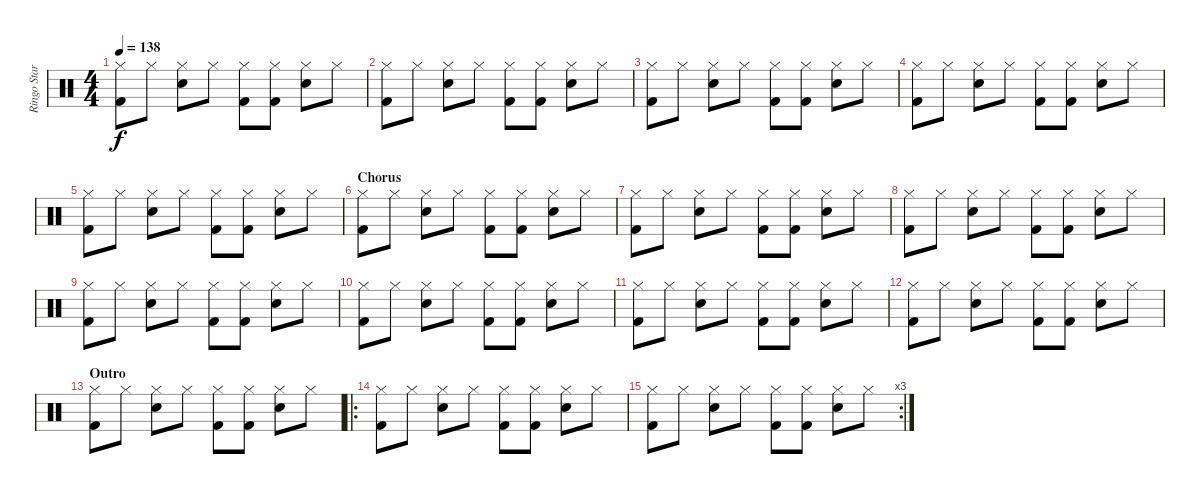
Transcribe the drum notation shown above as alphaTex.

\track ("Ringo Starr" "Ringo Star") {instrument percussion}
\staff {score}
\articulation defaults
\ts (4 4)
\tempo 138
\clef neutral
\ks c
("Hi-Hat (closed)" "Kick (hit) 2").8{dy f} "Hi-Hat (closed)".8 ("Hi-Hat (closed)" "Electric Snare (hit)").8 "Hi-Hat (closed)".8 ("Hi-Hat (closed)" "Kick (hit) 2").8 ("Hi-Hat (closed)" "Kick (hit) 2").8 ("Hi-Hat (closed)" "Electric Snare (hit)").8 "Hi-Hat (closed)".8 |
("Hi-Hat (closed)" "Kick (hit) 2").8 "Hi-Hat (closed)".8 ("Hi-Hat (closed)" "Electric Snare (hit)").8 "Hi-Hat (closed)".8 ("Hi-Hat (closed)" "Kick (hit) 2").8 ("Hi-Hat (closed)" "Kick (hit) 2").8 ("Hi-Hat (closed)" "Electric Snare (hit)").8 "Hi-Hat (closed)".8 |
("Hi-Hat (closed)" "Kick (hit) 2").8 "Hi-Hat (closed)".8 ("Hi-Hat (closed)" "Electric Snare (hit)").8 "Hi-Hat (closed)".8 ("Hi-Hat (closed)" "Kick (hit) 2").8 ("Hi-Hat (closed)" "Kick (hit) 2").8 ("Hi-Hat (closed)" "Electric Snare (hit)").8 "Hi-Hat (closed)".8 |
("Hi-Hat (closed)" "Kick (hit) 2").8 "Hi-Hat (closed)".8 ("Hi-Hat (closed)" "Electric Snare (hit)").8 "Hi-Hat (closed)".8 ("Hi-Hat (closed)" "Kick (hit) 2").8 ("Hi-Hat (closed)" "Kick (hit) 2").8 ("Hi-Hat (closed)" "Electric Snare (hit)").8 "Hi-Hat (closed)".8 |
("Hi-Hat (closed)" "Kick (hit) 2").8 "Hi-Hat (closed)".8 ("Hi-Hat (closed)" "Electric Snare (hit)").8 "Hi-Hat (closed)".8 ("Hi-Hat (closed)" "Kick (hit) 2").8 ("Hi-Hat (closed)" "Kick (hit) 2").8 ("Hi-Hat (closed)" "Electric Snare (hit)").8 "Hi-Hat (closed)".8 |
\section ("" "Chorus")
("Hi-Hat (closed)" "Kick (hit) 2").8 "Hi-Hat (closed)".8 ("Hi-Hat (closed)" "Electric Snare (hit)").8 "Hi-Hat (closed)".8 ("Hi-Hat (closed)" "Kick (hit) 2").8 ("Hi-Hat (closed)" "Kick (hit) 2").8 ("Hi-Hat (closed)" "Electric Snare (hit)").8 "Hi-Hat (closed)".8 |
("Hi-Hat (closed)" "Kick (hit) 2").8 "Hi-Hat (closed)".8 ("Hi-Hat (closed)" "Electric Snare (hit)").8 "Hi-Hat (closed)".8 ("Hi-Hat (closed)" "Kick (hit) 2").8 ("Hi-Hat (closed)" "Kick (hit) 2").8 ("Hi-Hat (closed)" "Electric Snare (hit)").8 "Hi-Hat (closed)".8 |
("Hi-Hat (closed)" "Kick (hit) 2").8 "Hi-Hat (closed)".8 ("Hi-Hat (closed)" "Electric Snare (hit)").8 "Hi-Hat (closed)".8 ("Hi-Hat (closed)" "Kick (hit) 2").8 ("Hi-Hat (closed)" "Kick (hit) 2").8 ("Hi-Hat (closed)" "Electric Snare (hit)").8 "Hi-Hat (closed)".8 |
("Hi-Hat (closed)" "Kick (hit) 2").8 "Hi-Hat (closed)".8 ("Hi-Hat (closed)" "Electric Snare (hit)").8 "Hi-Hat (closed)".8 ("Hi-Hat (closed)" "Kick (hit) 2").8 ("Hi-Hat (closed)" "Kick (hit) 2").8 ("Hi-Hat (closed)" "Electric Snare (hit)").8 "Hi-Hat (closed)".8 |
("Hi-Hat (closed)" "Kick (hit) 2").8 "Hi-Hat (closed)".8 ("Hi-Hat (closed)" "Electric Snare (hit)").8 "Hi-Hat (closed)".8 ("Hi-Hat (closed)" "Kick (hit) 2").8 ("Hi-Hat (closed)" "Kick (hit) 2").8 ("Hi-Hat (closed)" "Electric Snare (hit)").8 "Hi-Hat (closed)".8 |
("Hi-Hat (closed)" "Kick (hit) 2").8 "Hi-Hat (closed)".8 ("Hi-Hat (closed)" "Electric Snare (hit)").8 "Hi-Hat (closed)".8 ("Hi-Hat (closed)" "Kick (hit) 2").8 ("Hi-Hat (closed)" "Kick (hit) 2").8 ("Hi-Hat (closed)" "Electric Snare (hit)").8 "Hi-Hat (closed)".8 |
("Hi-Hat (closed)" "Kick (hit) 2").8 "Hi-Hat (closed)".8 ("Hi-Hat (closed)" "Electric Snare (hit)").8 "Hi-Hat (closed)".8 ("Hi-Hat (closed)" "Kick (hit) 2").8 ("Hi-Hat (closed)" "Kick (hit) 2").8 ("Hi-Hat (closed)" "Electric Snare (hit)").8 "Hi-Hat (closed)".8 |
\section ("" "Outro")
("Hi-Hat (closed)" "Kick (hit) 2").8 "Hi-Hat (closed)".8 ("Hi-Hat (closed)" "Electric Snare (hit)").8 "Hi-Hat (closed)".8 ("Hi-Hat (closed)" "Kick (hit) 2").8 ("Hi-Hat (closed)" "Kick (hit) 2").8 ("Hi-Hat (closed)" "Electric Snare (hit)").8 "Hi-Hat (closed)".8 |
\ro
("Hi-Hat (closed)" "Kick (hit) 2").8 "Hi-Hat (closed)".8 ("Hi-Hat (closed)" "Electric Snare (hit)").8 "Hi-Hat (closed)".8 ("Hi-Hat (closed)" "Kick (hit) 2").8 ("Hi-Hat (closed)" "Kick (hit) 2").8 ("Hi-Hat (closed)" "Electric Snare (hit)").8 "Hi-Hat (closed)".8 |
\rc 3
("Hi-Hat (closed)" "Kick (hit) 2").8 "Hi-Hat (closed)".8 ("Hi-Hat (closed)" "Electric Snare (hit)").8 "Hi-Hat (closed)".8 ("Hi-Hat (closed)" "Kick (hit) 2").8 ("Hi-Hat (closed)" "Kick (hit) 2").8 ("Hi-Hat (closed)" "Electric Snare (hit)").8 "Hi-Hat (closed)".8
